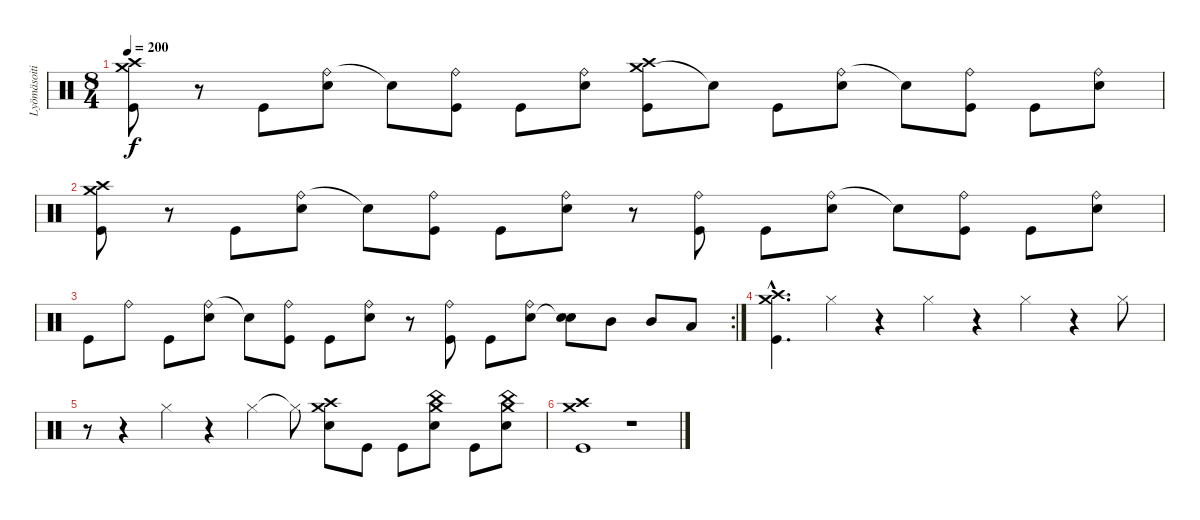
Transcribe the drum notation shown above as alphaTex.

\track ("Lyömäsoitin" "Lyömäsoiti") {instrument percussion}
\staff {score}
\articulation defaults
\ts (8 4)
\tempo 200
\clef neutral
\ks c
("Crash medium (hit)" "Crash high (hit)" "Kick (hit)").8{dy f} r.8 "Kick (hit)".8 ("Ride (bell)" "Snare (hit) 2").8 "Snare (hit)"{t}.8 ("Ride (bell)" "Kick (hit)").8 "Kick (hit)".8 ("Ride (bell)" "Snare (hit) 2").8 ("Crash medium (hit)" "Crash high (hit)" "Kick (hit)").8 "Snare (hit)"{t}.8 "Kick (hit)".8 ("Ride (bell)" "Snare (hit) 2").8 "Snare (hit)"{t}.8 ("Ride (bell)" "Kick (hit)").8 "Kick (hit)".8 ("Ride (bell)" "Snare (hit) 2").8 |
("Crash medium (hit)" "Crash high (hit)" "Kick (hit)").8 r.8 "Kick (hit)".8 ("Ride (bell)" "Snare (hit) 2").8 "Snare (hit)"{t}.8 ("Ride (bell)" "Kick (hit)").8 "Kick (hit)".8 ("Ride (bell)" "Snare (hit) 2").8 r.8 ("Ride (bell)" "Kick (hit)").8 "Kick (hit)".8 ("Ride (bell)" "Snare (hit) 2").8 "Snare (hit)"{t}.8 ("Ride (bell)" "Kick (hit)").8 "Kick (hit)".8 ("Ride (bell)" "Snare (hit) 2").8 |
\rc 2 "Kick (hit)".8 "Ride (bell)".8 "Kick (hit)".8
("Ride (bell)" "Snare (hit) 2").8 "Snare (hit)"{t}.8 ("Ride (bell)" "Kick (hit)").8 "Kick (hit)".8 ("Ride (bell)" "Snare (hit) 2").8 r.8 ("Ride (bell)" "Kick (hit)").8 "Kick (hit)".8 ("Ride (bell)" "Snare (hit) 2").8 ("Snare (hit) 2" "Snare (hit)"{t}).8 "Mid Tom (hit)".8 "Mid Tom (hit)".8 "Low Tom (hit)".8 |
("Crash medium (hit)"{hac} "Crash high (hit)"{hac} "Kick (hit)"{hac}).4{d} "Hi-Hat (closed)".4 r.4 "Hi-Hat (closed)".4 r.4 "Hi-Hat (closed)".4 r.4 "Hi-Hat (closed)".8 |
r.8 r.4 "Hi-Hat (closed)".4 r.4 "Hi-Hat (closed)".4 "Hi-Hat (closed)"{t}.8 ("Crash medium (hit)" "Crash high (hit)" "Snare (hit) 2").8 "Kick (hit)".8 "Kick (hit)".8 ("Crash medium (hit)" "China (hit)" "Snare (hit) 2").8 "Kick (hit)".8 ("Crash medium (hit)" "China (hit)" "Snare (hit) 2").8 |
("Crash medium (hit)" "Crash high (hit)" "Kick (hit)").1 r.1
